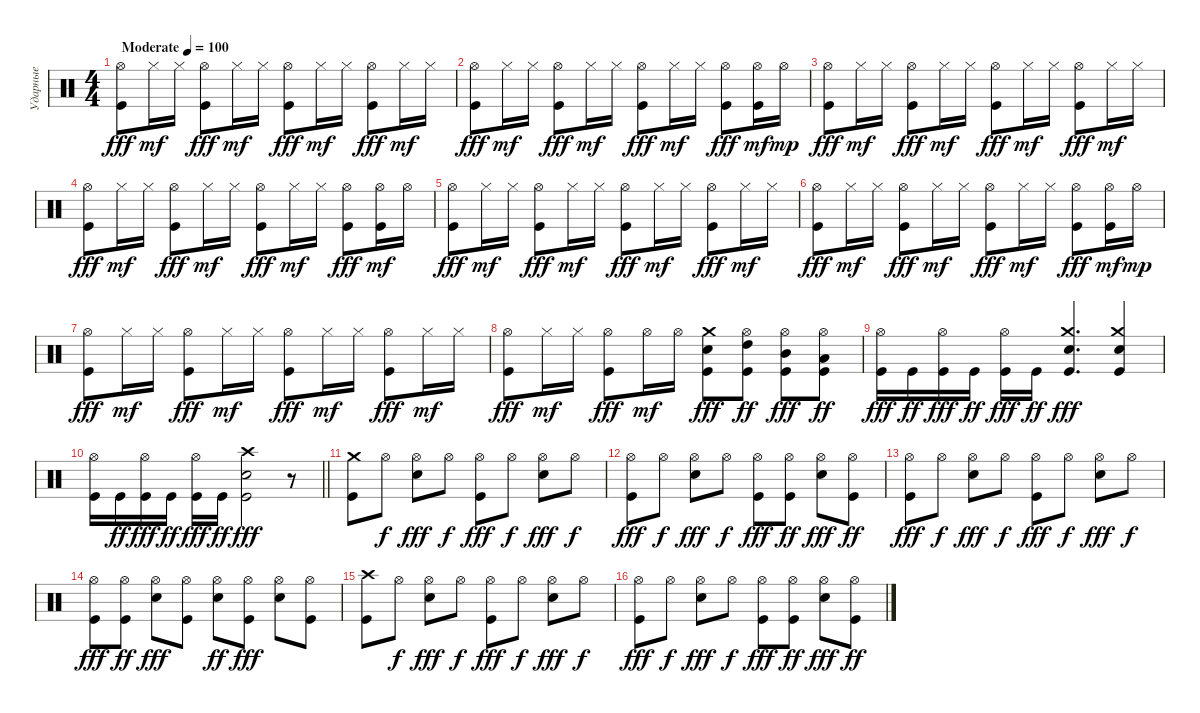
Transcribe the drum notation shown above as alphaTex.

\track ("Ударные" "Ударные") {instrument percussion}
\staff {score}
\articulation defaults
\ts (4 4)
\tempo (100 "Moderate")
\clef neutral
\ks c
("Hi-Hat (open)" "Kick (hit)").8{dy fff} "Hi-Hat (closed)".16{dy mf} "Hi-Hat (closed)".16 ("Hi-Hat (open)" "Kick (hit)").8{dy fff} "Hi-Hat (closed)".16{dy mf} "Hi-Hat (closed)".16 ("Hi-Hat (open)" "Kick (hit)").8{dy fff} "Hi-Hat (closed)".16{dy mf} "Hi-Hat (closed)".16 ("Hi-Hat (open)" "Kick (hit)").8{dy fff} "Hi-Hat (closed)".16{dy mf} "Hi-Hat (closed)".16 |
("Hi-Hat (open)" "Kick (hit)").8{dy fff} "Hi-Hat (closed)".16{dy mf} "Hi-Hat (closed)".16 ("Hi-Hat (open)" "Kick (hit)").8{dy fff} "Hi-Hat (closed)".16{dy mf} "Hi-Hat (closed)".16 ("Hi-Hat (open)" "Kick (hit)").8{dy fff} "Hi-Hat (closed)".16{dy mf} "Hi-Hat (closed)".16 ("Hi-Hat (open)" "Kick (hit)").8{dy fff} ("Hi-Hat (open)" "Kick (hit)").16{dy mf} "Hi-Hat (open)".16{dy mp} |
("Hi-Hat (open)" "Kick (hit)").8{dy fff} "Hi-Hat (closed)".16{dy mf} "Hi-Hat (closed)".16 ("Hi-Hat (open)" "Kick (hit)").8{dy fff} "Hi-Hat (closed)".16{dy mf} "Hi-Hat (closed)".16 ("Hi-Hat (open)" "Kick (hit)").8{dy fff} "Hi-Hat (closed)".16{dy mf} "Hi-Hat (closed)".16 ("Hi-Hat (open)" "Kick (hit)").8{dy fff} "Hi-Hat (closed)".16{dy mf} "Hi-Hat (closed)".16 |
("Hi-Hat (open)" "Kick (hit)").8{dy fff} "Hi-Hat (closed)".16{dy mf} "Hi-Hat (closed)".16 ("Hi-Hat (open)" "Kick (hit)").8{dy fff} "Hi-Hat (closed)".16{dy mf} "Hi-Hat (closed)".16 ("Hi-Hat (open)" "Kick (hit)").8{dy fff} "Hi-Hat (closed)".16{dy mf} "Hi-Hat (closed)".16 ("Hi-Hat (open)" "Kick (hit)").8{dy fff} ("Hi-Hat (open)" "Kick (hit)").16{dy mf} "Hi-Hat (open)".16 |
("Hi-Hat (open)" "Kick (hit)").8{dy fff} "Hi-Hat (closed)".16{dy mf} "Hi-Hat (closed)".16 ("Hi-Hat (open)" "Kick (hit)").8{dy fff} "Hi-Hat (closed)".16{dy mf} "Hi-Hat (closed)".16 ("Hi-Hat (open)" "Kick (hit)").8{dy fff} "Hi-Hat (closed)".16{dy mf} "Hi-Hat (closed)".16 ("Hi-Hat (open)" "Kick (hit)").8{dy fff} "Hi-Hat (closed)".16{dy mf} "Hi-Hat (closed)".16 |
("Hi-Hat (open)" "Kick (hit)").8{dy fff} "Hi-Hat (closed)".16{dy mf} "Hi-Hat (closed)".16 ("Hi-Hat (open)" "Kick (hit)").8{dy fff} "Hi-Hat (closed)".16{dy mf} "Hi-Hat (closed)".16 ("Hi-Hat (open)" "Kick (hit)").8{dy fff} "Hi-Hat (closed)".16{dy mf} "Hi-Hat (closed)".16 ("Hi-Hat (open)" "Kick (hit)").8{dy fff} ("Hi-Hat (open)" "Kick (hit)").16{dy mf} "Hi-Hat (open)".16{dy mp} |
("Hi-Hat (open)" "Kick (hit)").8{dy fff} "Hi-Hat (closed)".16{dy mf} "Hi-Hat (closed)".16 ("Hi-Hat (open)" "Kick (hit)").8{dy fff} "Hi-Hat (closed)".16{dy mf} "Hi-Hat (closed)".16 ("Hi-Hat (open)" "Kick (hit)").8{dy fff} "Hi-Hat (closed)".16{dy mf} "Hi-Hat (closed)".16 ("Hi-Hat (open)" "Kick (hit)").8{dy fff} "Hi-Hat (closed)".16{dy mf} "Hi-Hat (closed)".16 |
("Hi-Hat (open)" "Kick (hit)").8{dy fff} "Hi-Hat (closed)".16{dy mf} "Hi-Hat (closed)".16 ("Hi-Hat (open)" "Kick (hit)").8{dy fff} "Hi-Hat (open)".16{dy mf} "Hi-Hat (open)".16 ("Crash medium (hit)" "Electric Snare (hit)" "Kick (hit)").8{dy fff} ("High Tom (hit)" "Hi-Hat (open)" "Kick (hit)").8{dy ff} ("Mid Tom (hit)" "Hi-Hat (open)" "Kick (hit)").8{dy fff} ("Low Tom (hit)" "Hi-Hat (open)" "Kick (hit)").8{dy ff} |
("Hi-Hat (open)" "Kick (hit)").16{dy fff} "Kick (hit)".16{dy ff} ("Hi-Hat (open)" "Kick (hit)").16{dy fff} "Kick (hit)".16{dy ff} ("Hi-Hat (open)" "Kick (hit)").16{dy fff} "Kick (hit)".16{dy ff} ("Crash medium (hit)" "Electric Snare (hit)" "Kick (hit)").4{d dy fff} ("Crash medium (hit)" "Electric Snare (hit)" "Kick (hit)").4 |
\barLineRight lightlight
("Hi-Hat (open)" "Kick (hit)").16 "Kick (hit)".16{dy ff} ("Hi-Hat (open)" "Kick (hit)").16{dy fff} "Kick (hit)".16{dy ff} ("Hi-Hat (open)" "Kick (hit)").16{dy fff} "Kick (hit)".16{dy ff} ("Crash high (hit)" "Electric Snare (hit)" "Kick (hit)").2{dy fff} r.8 |
\section ("" "")
("Crash medium (hit)" "Kick (hit)").8 "Hi-Hat (open)".8{dy f} ("Hi-Hat (open)" "Electric Snare (hit)").8{dy fff} "Hi-Hat (open)".8{dy f} ("Hi-Hat (open)" "Kick (hit)").8{dy fff} "Hi-Hat (open)".8{dy f} ("Hi-Hat (open)" "Electric Snare (hit)").8{dy fff} "Hi-Hat (open)".8{dy f} |
("Hi-Hat (open)" "Kick (hit)").8{dy fff} "Hi-Hat (open)".8{dy f} ("Hi-Hat (open)" "Electric Snare (hit)").8{dy fff} "Hi-Hat (open)".8{dy f} ("Hi-Hat (open)" "Kick (hit)").8{dy fff} ("Hi-Hat (open)" "Kick (hit)").8{dy ff} ("Hi-Hat (open)" "Electric Snare (hit)").8{dy fff} ("Hi-Hat (open)" "Kick (hit)").8{dy ff} |
("Hi-Hat (open)" "Kick (hit)").8{dy fff} "Hi-Hat (open)".8{dy f} ("Hi-Hat (open)" "Electric Snare (hit)").8{dy fff} "Hi-Hat (open)".8{dy f} ("Hi-Hat (open)" "Kick (hit)").8{dy fff} "Hi-Hat (open)".8{dy f} ("Hi-Hat (open)" "Electric Snare (hit)").8{dy fff} "Hi-Hat (open)".8{dy f} |
("Hi-Hat (open)" "Kick (hit)").8{dy fff} ("Hi-Hat (open)" "Kick (hit)").8{dy ff} ("Hi-Hat (open)" "Electric Snare (hit)").8{dy fff} ("Hi-Hat (open)" "Kick (hit)").8 ("Hi-Hat (open)" "Electric Snare (hit)").8{dy ff} ("Hi-Hat (open)" "Kick (hit)").8{dy fff} ("Hi-Hat (open)" "Electric Snare (hit)").8 ("Hi-Hat (open)" "Kick (hit)").8 |
("Crash high (hit)" "Kick (hit)").8 "Hi-Hat (open)".8{dy f} ("Hi-Hat (open)" "Electric Snare (hit)").8{dy fff} "Hi-Hat (open)".8{dy f} ("Hi-Hat (open)" "Kick (hit)").8{dy fff} "Hi-Hat (open)".8{dy f} ("Hi-Hat (open)" "Electric Snare (hit)").8{dy fff} "Hi-Hat (open)".8{dy f} |
("Hi-Hat (open)" "Kick (hit)").8{dy fff} "Hi-Hat (open)".8{dy f} ("Hi-Hat (open)" "Electric Snare (hit)").8{dy fff} "Hi-Hat (open)".8{dy f} ("Hi-Hat (open)" "Kick (hit)").8{dy fff} ("Hi-Hat (open)" "Kick (hit)").8{dy ff} ("Hi-Hat (open)" "Electric Snare (hit)").8{dy fff} ("Hi-Hat (open)" "Kick (hit)").8{dy ff}
